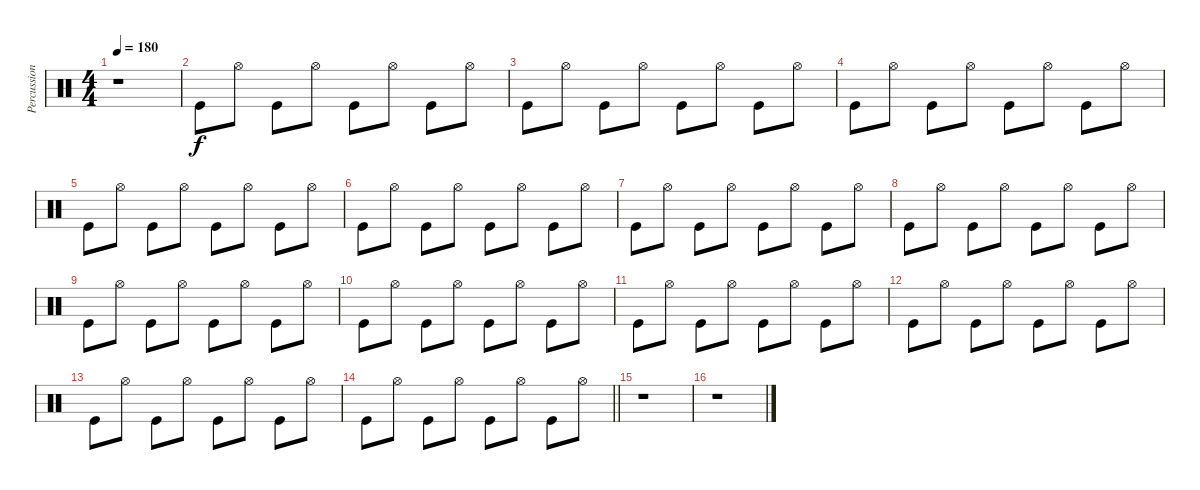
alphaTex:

\track ("Percussions" "Percussion") {instrument percussion}
\staff {score}
\articulation defaults
\ts (4 4)
\tempo 180
\clef neutral
\ks c
r.1{dy f} |
"Kick (hit)".8 "Hi-Hat (open)".8 "Kick (hit)".8 "Hi-Hat (open)".8 "Kick (hit)".8 "Hi-Hat (open)".8 "Kick (hit)".8 "Hi-Hat (open)".8 |
"Kick (hit)".8 "Hi-Hat (open)".8 "Kick (hit)".8 "Hi-Hat (open)".8 "Kick (hit)".8 "Hi-Hat (open)".8 "Kick (hit)".8 "Hi-Hat (open)".8 |
"Kick (hit)".8 "Hi-Hat (open)".8 "Kick (hit)".8 "Hi-Hat (open)".8 "Kick (hit)".8 "Hi-Hat (open)".8 "Kick (hit)".8 "Hi-Hat (open)".8 |
"Kick (hit)".8 "Hi-Hat (open)".8 "Kick (hit)".8 "Hi-Hat (open)".8 "Kick (hit)".8 "Hi-Hat (open)".8 "Kick (hit)".8 "Hi-Hat (open)".8 |
"Kick (hit)".8 "Hi-Hat (open)".8 "Kick (hit)".8 "Hi-Hat (open)".8 "Kick (hit)".8 "Hi-Hat (open)".8 "Kick (hit)".8 "Hi-Hat (open)".8 |
"Kick (hit)".8 "Hi-Hat (open)".8 "Kick (hit)".8 "Hi-Hat (open)".8 "Kick (hit)".8 "Hi-Hat (open)".8 "Kick (hit)".8 "Hi-Hat (open)".8 |
"Kick (hit)".8 "Hi-Hat (open)".8 "Kick (hit)".8 "Hi-Hat (open)".8 "Kick (hit)".8 "Hi-Hat (open)".8 "Kick (hit)".8 "Hi-Hat (open)".8 |
"Kick (hit)".8 "Hi-Hat (open)".8 "Kick (hit)".8 "Hi-Hat (open)".8 "Kick (hit)".8 "Hi-Hat (open)".8 "Kick (hit)".8 "Hi-Hat (open)".8 |
"Kick (hit)".8 "Hi-Hat (open)".8 "Kick (hit)".8 "Hi-Hat (open)".8 "Kick (hit)".8 "Hi-Hat (open)".8 "Kick (hit)".8 "Hi-Hat (open)".8 |
"Kick (hit)".8 "Hi-Hat (open)".8 "Kick (hit)".8 "Hi-Hat (open)".8 "Kick (hit)".8 "Hi-Hat (open)".8 "Kick (hit)".8 "Hi-Hat (open)".8 |
"Kick (hit)".8 "Hi-Hat (open)".8 "Kick (hit)".8 "Hi-Hat (open)".8 "Kick (hit)".8 "Hi-Hat (open)".8 "Kick (hit)".8 "Hi-Hat (open)".8 |
"Kick (hit)".8 "Hi-Hat (open)".8 "Kick (hit)".8 "Hi-Hat (open)".8 "Kick (hit)".8 "Hi-Hat (open)".8 "Kick (hit)".8 "Hi-Hat (open)".8 |
\barLineRight lightlight "Kick (hit)".8 "Hi-Hat (open)".8 "Kick (hit)".8 "Hi-Hat (open)".8 "Kick (hit)".8 "Hi-Hat (open)".8 "Kick (hit)".8 "Hi-Hat (open)".8
|
r.1 |
r.1
